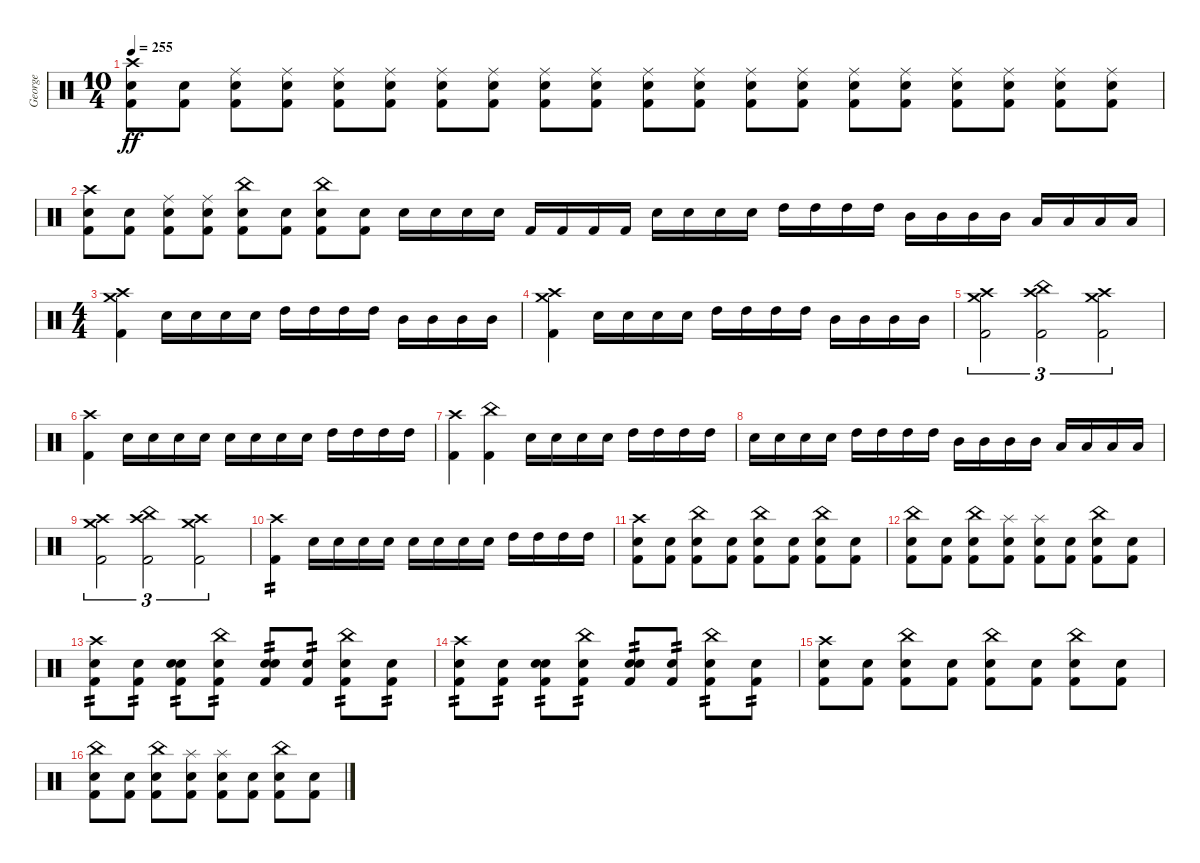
\track ("George" "George") {instrument percussion}
\staff {score}
\articulation defaults
\ts (10 4)
\tempo 255
\clef neutral
\ks c
("Crash high (hit)" "Snare (hit) 2" "Kick (hit) 2").8{dy ff} ("Snare (hit) 2" "Kick (hit) 2").8 ("Ride (middle)" "Snare (hit) 2" "Kick (hit) 2").8 ("Ride (middle)" "Snare (hit) 2" "Kick (hit) 2").8 ("Ride (middle)" "Snare (hit) 2" "Kick (hit) 2").8 ("Ride (middle)" "Snare (hit) 2" "Kick (hit) 2").8 ("Ride (middle)" "Snare (hit) 2" "Kick (hit) 2").8 ("Ride (middle)" "Snare (hit) 2" "Kick (hit) 2").8 ("Ride (middle)" "Snare (hit) 2" "Kick (hit) 2").8 ("Ride (middle)" "Snare (hit) 2" "Kick (hit) 2").8 ("Ride (middle)" "Snare (hit) 2" "Kick (hit) 2").8 ("Ride (middle)" "Snare (hit) 2" "Kick (hit) 2").8 ("Ride (middle)" "Snare (hit) 2" "Kick (hit) 2").8 ("Ride (middle)" "Snare (hit) 2" "Kick (hit) 2").8 ("Ride (middle)" "Snare (hit) 2" "Kick (hit) 2").8 ("Ride (middle)" "Snare (hit) 2" "Kick (hit) 2").8 ("Ride (middle)" "Snare (hit) 2" "Kick (hit) 2").8 ("Ride (middle)" "Snare (hit) 2" "Kick (hit) 2").8 ("Ride (middle)" "Snare (hit) 2" "Kick (hit) 2").8 ("Ride (middle)" "Snare (hit) 2" "Kick (hit) 2").8 |
("Crash high (hit)" "Snare (hit) 2" "Kick (hit) 2").8 ("Snare (hit) 2" "Kick (hit) 2").8 ("Ride (middle)" "Snare (hit) 2" "Kick (hit) 2").8 ("Ride (middle)" "Snare (hit) 2" "Kick (hit) 2").8 ("China (hit)" "Snare (hit) 2" "Kick (hit) 2").8 ("Snare (hit) 2" "Kick (hit) 2").8 ("China (hit)" "Snare (hit) 2" "Kick (hit) 2").8 ("Snare (hit) 2" "Kick (hit) 2").8 "Snare (hit) 2".16 "Snare (hit) 2".16 "Snare (hit) 2".16 "Snare (hit) 2".16 "Kick (hit) 2".16 "Kick (hit) 2".16 "Kick (hit) 2".16 "Kick (hit) 2".16 "Snare (hit) 2".16 "Snare (hit) 2".16 "Snare (hit) 2".16 "Snare (hit) 2".16 "High Tom (hit)".16 "High Tom (hit)".16 "High Tom (hit)".16 "High Tom (hit)".16 "Mid Tom (hit)".16 "Mid Tom (hit)".16 "Mid Tom (hit)".16 "Mid Tom (hit)".16 "Low Tom (hit)".16 "Low Tom (hit)".16 "Low Tom (hit)".16 "Low Tom (hit)".16 |
\ts (4 4)
("Crash high (hit)" "Crash medium (hit)" "Kick (hit) 2").4 "Snare (hit) 2".16 "Snare (hit) 2".16 "Snare (hit) 2".16 "Snare (hit) 2".16 "High Tom (hit)".16 "High Tom (hit)".16 "High Tom (hit)".16 "High Tom (hit)".16 "Mid Tom (hit)".16 "Mid Tom (hit)".16 "Mid Tom (hit)".16 "Mid Tom (hit)".16 |
("Crash high (hit)" "Crash medium (hit)" "Kick (hit) 2").4 "Snare (hit) 2".16 "Snare (hit) 2".16 "Snare (hit) 2".16 "Snare (hit) 2".16 "High Tom (hit)".16 "High Tom (hit)".16 "High Tom (hit)".16 "High Tom (hit)".16 "Mid Tom (hit)".16 "Mid Tom (hit)".16 "Mid Tom (hit)".16 "Mid Tom (hit)".16 |
("Crash medium (hit)" "Crash high (hit)" "Kick (hit) 2").2{tu (3 2)} ("China (hit)" "Crash high (hit)" "Kick (hit) 2").2{tu (3 2)} ("Crash high (hit)" "Crash medium (hit)" "Kick (hit) 2").2{tu (3 2)} |
("Crash high (hit)" "Kick (hit) 2").4 "Snare (hit) 2".16 "Snare (hit) 2".16 "Snare (hit) 2".16 "Snare (hit) 2".16 "Snare (hit) 2".16 "Snare (hit) 2".16 "Snare (hit) 2".16 "Snare (hit) 2".16 "High Tom (hit)".16 "High Tom (hit)".16 "High Tom (hit)".16 "High Tom (hit)".16 |
("Crash high (hit)" "Kick (hit) 2").4 ("China (hit)" "Kick (hit) 2").4 "Snare (hit) 2".16 "Snare (hit) 2".16 "Snare (hit) 2".16 "Snare (hit) 2".16 "High Tom (hit)".16 "High Tom (hit)".16 "High Tom (hit)".16 "High Tom (hit)".16 |
"Snare (hit) 2".16 "Snare (hit) 2".16 "Snare (hit) 2".16 "Snare (hit) 2".16 "High Tom (hit)".16 "High Tom (hit)".16 "High Tom (hit)".16 "High Tom (hit)".16 "Mid Tom (hit)".16 "Mid Tom (hit)".16 "Mid Tom (hit)".16 "Mid Tom (hit)".16 "Low Tom (hit)".16 "Low Tom (hit)".16 "Low Tom (hit)".16 "Low Tom (hit)".16 |
("Crash medium (hit)" "Crash high (hit)" "Kick (hit) 2").2{tu (3 2)} ("China (hit)" "Crash high (hit)" "Kick (hit) 2").2{tu (3 2)} ("Crash high (hit)" "Crash medium (hit)" "Kick (hit) 2").2{tu (3 2)} |
("Crash high (hit)" "Kick (hit) 2").4{tp 2} "Snare (hit) 2".16 "Snare (hit) 2".16 "Snare (hit) 2".16 "Snare (hit) 2".16 "Snare (hit) 2".16 "Snare (hit) 2".16 "Snare (hit) 2".16 "Snare (hit) 2".16 "High Tom (hit)".16 "High Tom (hit)".16 "High Tom (hit)".16 "High Tom (hit)".16 |
("Crash high (hit)" "Snare (hit) 2" "Kick (hit) 2").8 ("Snare (hit) 2" "Kick (hit) 2").8 ("China (hit)" "Snare (hit) 2" "Kick (hit) 2").8 ("Snare (hit) 2" "Kick (hit) 2").8 ("China (hit)" "Snare (hit) 2" "Kick (hit) 2").8 ("Snare (hit) 2" "Kick (hit) 2").8 ("China (hit)" "Snare (hit) 2" "Kick (hit) 2").8 ("Snare (hit) 2" "Kick (hit) 2").8 |
("China (hit)" "Snare (hit) 2" "Kick (hit) 2").8 ("Snare (hit) 2" "Kick (hit) 2").8 ("China (hit)" "Snare (hit) 2" "Kick (hit) 2").8 ("Splash (hit)" "Snare (hit) 2" "Kick (hit) 2").8 ("Splash (hit)" "Snare (hit) 2" "Kick (hit) 2").8 ("Snare (hit) 2" "Kick (hit) 2").8 ("China (hit)" "Snare (hit) 2" "Kick (hit) 2").8 ("Snare (hit) 2" "Kick (hit) 2").8 |
("Crash high (hit)" "Snare (hit) 2" "Kick (hit) 2").8{tp 2} ("Snare (hit) 2" "Kick (hit) 2").8{tp 2} ("Snare (hit)" "Snare (hit) 2" "Kick (hit) 2").8{tp 2} ("China (hit)" "Snare (hit) 2" "Kick (hit) 2").8{tp 2} ("Snare (hit)" "Snare (hit) 2" "Kick (hit) 2").8{tp 2} ("Snare (hit) 2" "Kick (hit) 2").8{tp 2} ("China (hit)" "Snare (hit) 2" "Kick (hit) 2").8{tp 2} ("Snare (hit) 2" "Kick (hit) 2").8{tp 2} |
("Crash high (hit)" "Snare (hit) 2" "Kick (hit) 2").8{tp 2} ("Snare (hit) 2" "Kick (hit) 2").8{tp 2} ("Snare (hit)" "Snare (hit) 2" "Kick (hit) 2").8{tp 2} ("China (hit)" "Snare (hit) 2" "Kick (hit) 2").8{tp 2} ("Snare (hit)" "Snare (hit) 2" "Kick (hit) 2").8{tp 2} ("Snare (hit) 2" "Kick (hit) 2").8{tp 2} ("China (hit)" "Snare (hit) 2" "Kick (hit) 2").8{tp 2} ("Snare (hit) 2" "Kick (hit) 2").8{tp 2} |
("Crash high (hit)" "Snare (hit) 2" "Kick (hit) 2").8 ("Snare (hit) 2" "Kick (hit) 2").8 ("China (hit)" "Snare (hit) 2" "Kick (hit) 2").8 ("Snare (hit) 2" "Kick (hit) 2").8 ("China (hit)" "Snare (hit) 2" "Kick (hit) 2").8 ("Snare (hit) 2" "Kick (hit) 2").8 ("China (hit)" "Snare (hit) 2" "Kick (hit) 2").8 ("Snare (hit) 2" "Kick (hit) 2").8 |
("China (hit)" "Snare (hit) 2" "Kick (hit) 2").8 ("Snare (hit) 2" "Kick (hit) 2").8 ("China (hit)" "Snare (hit) 2" "Kick (hit) 2").8 ("Splash (hit)" "Snare (hit) 2" "Kick (hit) 2").8 ("Splash (hit)" "Snare (hit) 2" "Kick (hit) 2").8 ("Snare (hit) 2" "Kick (hit) 2").8 ("China (hit)" "Snare (hit) 2" "Kick (hit) 2").8 ("Snare (hit) 2" "Kick (hit) 2").8
